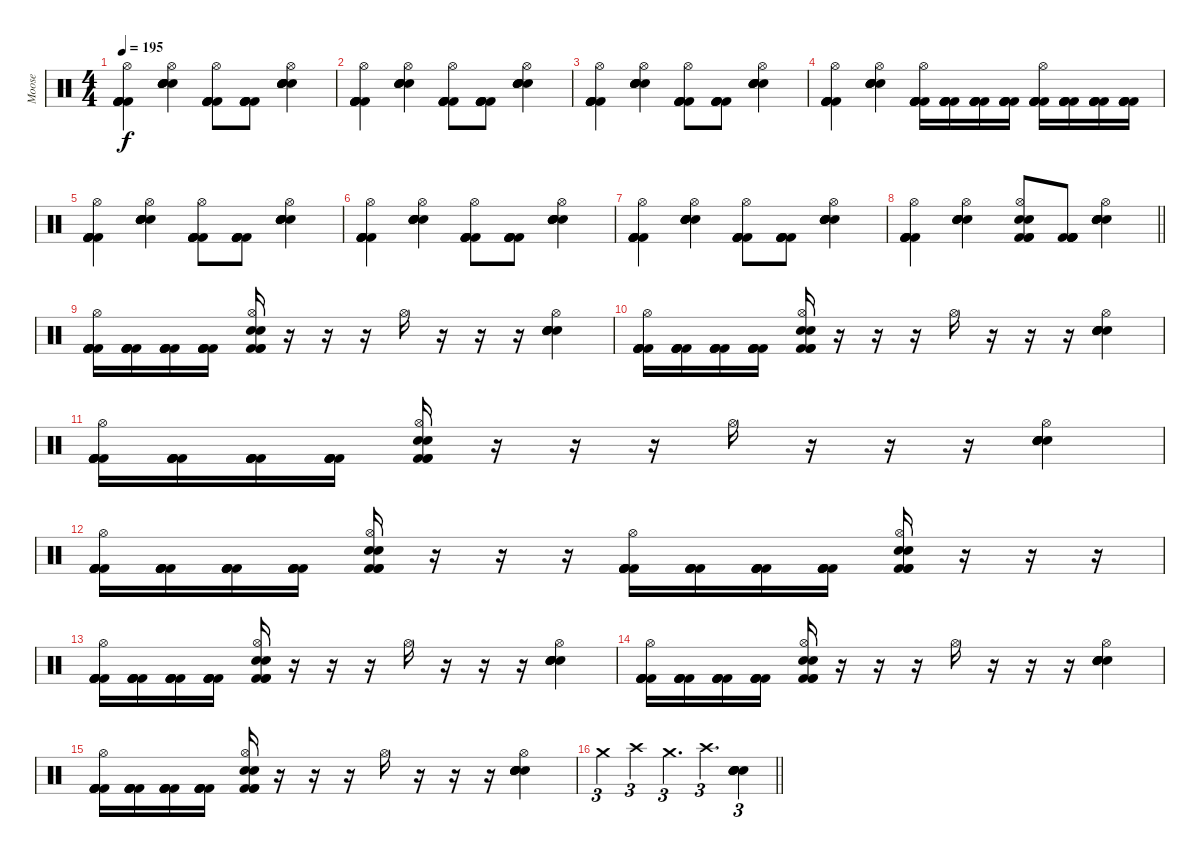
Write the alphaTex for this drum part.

\track ("Moose" "Moose") {instrument percussion}
\staff {score}
\articulation defaults
\ts (4 4)
\tempo 195
\clef neutral
\ks c
("Kick (hit) 2" "Kick (hit) 2" "Kick (hit) 2" "Kick (hit) 2" "Kick (hit) 2" "Hi-Hat (open)").4{dy f} ("Electric Snare (hit)" "Electric Snare (hit)" "Electric Snare (hit)" "Electric Snare (hit)" "Electric Snare (hit)" "Hi-Hat (open)").4 ("Kick (hit) 2" "Kick (hit) 2" "Kick (hit) 2" "Kick (hit) 2" "Kick (hit) 2" "Hi-Hat (open)").8 ("Kick (hit) 2" "Kick (hit) 2" "Kick (hit) 2" "Kick (hit) 2" "Kick (hit) 2").8 ("Electric Snare (hit)" "Electric Snare (hit)" "Electric Snare (hit)" "Electric Snare (hit)" "Electric Snare (hit)" "Hi-Hat (open)").4 |
("Kick (hit) 2" "Kick (hit) 2" "Kick (hit) 2" "Kick (hit) 2" "Kick (hit) 2" "Hi-Hat (open)").4 ("Electric Snare (hit)" "Electric Snare (hit)" "Electric Snare (hit)" "Electric Snare (hit)" "Electric Snare (hit)" "Hi-Hat (open)").4 ("Kick (hit) 2" "Kick (hit) 2" "Kick (hit) 2" "Kick (hit) 2" "Kick (hit) 2" "Hi-Hat (open)").8 ("Kick (hit) 2" "Kick (hit) 2" "Kick (hit) 2" "Kick (hit) 2" "Kick (hit) 2").8 ("Electric Snare (hit)" "Electric Snare (hit)" "Electric Snare (hit)" "Electric Snare (hit)" "Electric Snare (hit)" "Hi-Hat (open)").4 |
("Kick (hit) 2" "Kick (hit) 2" "Kick (hit) 2" "Kick (hit) 2" "Kick (hit) 2" "Hi-Hat (open)").4 ("Electric Snare (hit)" "Electric Snare (hit)" "Electric Snare (hit)" "Electric Snare (hit)" "Electric Snare (hit)" "Hi-Hat (open)").4 ("Kick (hit) 2" "Kick (hit) 2" "Kick (hit) 2" "Kick (hit) 2" "Kick (hit) 2" "Hi-Hat (open)").8 ("Kick (hit) 2" "Kick (hit) 2" "Kick (hit) 2" "Kick (hit) 2" "Kick (hit) 2").8 ("Electric Snare (hit)" "Electric Snare (hit)" "Electric Snare (hit)" "Electric Snare (hit)" "Electric Snare (hit)" "Hi-Hat (open)").4 |
("Kick (hit) 2" "Kick (hit) 2" "Kick (hit) 2" "Kick (hit) 2" "Kick (hit) 2" "Hi-Hat (open)").4 ("Electric Snare (hit)" "Electric Snare (hit)" "Electric Snare (hit)" "Electric Snare (hit)" "Electric Snare (hit)" "Hi-Hat (open)").4 ("Kick (hit) 2" "Kick (hit) 2" "Kick (hit) 2" "Kick (hit) 2" "Kick (hit) 2" "Hi-Hat (open)").16 ("Kick (hit) 2" "Kick (hit) 2" "Kick (hit) 2" "Kick (hit) 2" "Kick (hit) 2").16 ("Kick (hit) 2" "Kick (hit) 2" "Kick (hit) 2" "Kick (hit) 2" "Kick (hit) 2").16 ("Kick (hit) 2" "Kick (hit) 2" "Kick (hit) 2" "Kick (hit) 2" "Kick (hit) 2").16 ("Kick (hit) 2" "Kick (hit) 2" "Kick (hit) 2" "Kick (hit) 2" "Kick (hit) 2" "Hi-Hat (open)").16 ("Kick (hit) 2" "Kick (hit) 2" "Kick (hit) 2" "Kick (hit) 2" "Kick (hit) 2").16 ("Kick (hit) 2" "Kick (hit) 2" "Kick (hit) 2" "Kick (hit) 2" "Kick (hit) 2").16 ("Kick (hit) 2" "Kick (hit) 2" "Kick (hit) 2" "Kick (hit) 2" "Kick (hit) 2").16 |
("Kick (hit) 2" "Kick (hit) 2" "Kick (hit) 2" "Kick (hit) 2" "Kick (hit) 2" "Hi-Hat (open)").4 ("Electric Snare (hit)" "Electric Snare (hit)" "Electric Snare (hit)" "Electric Snare (hit)" "Electric Snare (hit)" "Hi-Hat (open)").4 ("Kick (hit) 2" "Kick (hit) 2" "Kick (hit) 2" "Kick (hit) 2" "Kick (hit) 2" "Hi-Hat (open)").8 ("Kick (hit) 2" "Kick (hit) 2" "Kick (hit) 2" "Kick (hit) 2" "Kick (hit) 2").8 ("Electric Snare (hit)" "Electric Snare (hit)" "Electric Snare (hit)" "Electric Snare (hit)" "Electric Snare (hit)" "Hi-Hat (open)").4 |
("Kick (hit) 2" "Kick (hit) 2" "Kick (hit) 2" "Kick (hit) 2" "Kick (hit) 2" "Hi-Hat (open)").4 ("Electric Snare (hit)" "Electric Snare (hit)" "Electric Snare (hit)" "Electric Snare (hit)" "Electric Snare (hit)" "Hi-Hat (open)").4 ("Kick (hit) 2" "Kick (hit) 2" "Kick (hit) 2" "Kick (hit) 2" "Kick (hit) 2" "Hi-Hat (open)").8 ("Kick (hit) 2" "Kick (hit) 2" "Kick (hit) 2" "Kick (hit) 2" "Kick (hit) 2").8 ("Electric Snare (hit)" "Electric Snare (hit)" "Electric Snare (hit)" "Electric Snare (hit)" "Electric Snare (hit)" "Hi-Hat (open)").4 |
("Kick (hit) 2" "Kick (hit) 2" "Kick (hit) 2" "Kick (hit) 2" "Kick (hit) 2" "Hi-Hat (open)").4 ("Electric Snare (hit)" "Electric Snare (hit)" "Electric Snare (hit)" "Electric Snare (hit)" "Electric Snare (hit)" "Hi-Hat (open)").4 ("Kick (hit) 2" "Kick (hit) 2" "Kick (hit) 2" "Kick (hit) 2" "Kick (hit) 2" "Hi-Hat (open)").8 ("Kick (hit) 2" "Kick (hit) 2" "Kick (hit) 2" "Kick (hit) 2" "Kick (hit) 2").8 ("Electric Snare (hit)" "Electric Snare (hit)" "Electric Snare (hit)" "Electric Snare (hit)" "Electric Snare (hit)" "Hi-Hat (open)").4 |
\barLineRight lightlight
("Kick (hit) 2" "Kick (hit) 2" "Kick (hit) 2" "Kick (hit) 2" "Kick (hit) 2" "Hi-Hat (open)").4 ("Electric Snare (hit)" "Electric Snare (hit)" "Electric Snare (hit)" "Electric Snare (hit)" "Electric Snare (hit)" "Hi-Hat (open)").4 ("Kick (hit) 2" "Kick (hit) 2" "Kick (hit) 2" "Electric Snare (hit)" "Electric Snare (hit)" "Hi-Hat (open)").8 ("Kick (hit) 2" "Kick (hit) 2" "Kick (hit) 2" "Kick (hit) 2" "Kick (hit) 2").8 ("Electric Snare (hit)" "Electric Snare (hit)" "Electric Snare (hit)" "Electric Snare (hit)" "Electric Snare (hit)" "Hi-Hat (open)").4 |
("Kick (hit) 2" "Kick (hit) 2" "Kick (hit) 2" "Kick (hit) 2" "Kick (hit) 2" "Hi-Hat (open)").16 ("Kick (hit) 2" "Kick (hit) 2" "Kick (hit) 2" "Kick (hit) 2" "Kick (hit) 2").16 ("Kick (hit) 2" "Kick (hit) 2" "Kick (hit) 2" "Kick (hit) 2" "Kick (hit) 2").16 ("Kick (hit) 2" "Kick (hit) 2" "Kick (hit) 2" "Kick (hit) 2" "Kick (hit) 2").16 ("Kick (hit) 2" "Kick (hit) 2" "Kick (hit) 2" "Electric Snare (hit)" "Electric Snare (hit)" "Hi-Hat (open)").16 r.16 r.16 r.16 "Hi-Hat (open)".16 r.16 r.16 r.16 ("Electric Snare (hit)" "Electric Snare (hit)" "Electric Snare (hit)" "Electric Snare (hit)" "Electric Snare (hit)" "Hi-Hat (open)").4 |
("Kick (hit) 2" "Kick (hit) 2" "Kick (hit) 2" "Kick (hit) 2" "Kick (hit) 2" "Hi-Hat (open)").16 ("Kick (hit) 2" "Kick (hit) 2" "Kick (hit) 2" "Kick (hit) 2" "Kick (hit) 2").16 ("Kick (hit) 2" "Kick (hit) 2" "Kick (hit) 2" "Kick (hit) 2" "Kick (hit) 2").16 ("Kick (hit) 2" "Kick (hit) 2" "Kick (hit) 2" "Kick (hit) 2" "Kick (hit) 2").16 ("Kick (hit) 2" "Kick (hit) 2" "Kick (hit) 2" "Electric Snare (hit)" "Electric Snare (hit)" "Hi-Hat (open)").16 r.16 r.16 r.16 "Hi-Hat (open)".16 r.16 r.16 r.16 ("Electric Snare (hit)" "Electric Snare (hit)" "Electric Snare (hit)" "Electric Snare (hit)" "Electric Snare (hit)" "Hi-Hat (open)").4 |
("Kick (hit) 2" "Kick (hit) 2" "Kick (hit) 2" "Kick (hit) 2" "Kick (hit) 2" "Hi-Hat (open)").16 ("Kick (hit) 2" "Kick (hit) 2" "Kick (hit) 2" "Kick (hit) 2" "Kick (hit) 2").16 ("Kick (hit) 2" "Kick (hit) 2" "Kick (hit) 2" "Kick (hit) 2" "Kick (hit) 2").16 ("Kick (hit) 2" "Kick (hit) 2" "Kick (hit) 2" "Kick (hit) 2" "Kick (hit) 2").16 ("Kick (hit) 2" "Kick (hit) 2" "Kick (hit) 2" "Electric Snare (hit)" "Electric Snare (hit)" "Hi-Hat (open)").16 r.16 r.16 r.16 "Hi-Hat (open)".16 r.16 r.16 r.16 ("Electric Snare (hit)" "Electric Snare (hit)" "Electric Snare (hit)" "Electric Snare (hit)" "Electric Snare (hit)" "Hi-Hat (open)").4 |
("Kick (hit) 2" "Kick (hit) 2" "Kick (hit) 2" "Kick (hit) 2" "Kick (hit) 2" "Hi-Hat (open)").16 ("Kick (hit) 2" "Kick (hit) 2" "Kick (hit) 2" "Kick (hit) 2" "Kick (hit) 2").16 ("Kick (hit) 2" "Kick (hit) 2" "Kick (hit) 2" "Kick (hit) 2" "Kick (hit) 2").16 ("Kick (hit) 2" "Kick (hit) 2" "Kick (hit) 2" "Kick (hit) 2" "Kick (hit) 2").16 ("Kick (hit) 2" "Kick (hit) 2" "Kick (hit) 2" "Electric Snare (hit)" "Electric Snare (hit)" "Hi-Hat (open)").16 r.16 r.16 r.16 ("Kick (hit) 2" "Kick (hit) 2" "Kick (hit) 2" "Kick (hit) 2" "Kick (hit) 2" "Hi-Hat (open)").16 ("Kick (hit) 2" "Kick (hit) 2" "Kick (hit) 2" "Kick (hit) 2" "Kick (hit) 2").16 ("Kick (hit) 2" "Kick (hit) 2" "Kick (hit) 2" "Kick (hit) 2" "Kick (hit) 2").16 ("Kick (hit) 2" "Kick (hit) 2" "Kick (hit) 2" "Kick (hit) 2" "Kick (hit) 2").16 ("Kick (hit) 2" "Kick (hit) 2" "Kick (hit) 2" "Electric Snare (hit)" "Electric Snare (hit)" "Hi-Hat (open)").16 r.16 r.16 r.16 |
("Kick (hit) 2" "Kick (hit) 2" "Kick (hit) 2" "Kick (hit) 2" "Kick (hit) 2" "Hi-Hat (open)").16 ("Kick (hit) 2" "Kick (hit) 2" "Kick (hit) 2" "Kick (hit) 2" "Kick (hit) 2").16 ("Kick (hit) 2" "Kick (hit) 2" "Kick (hit) 2" "Kick (hit) 2" "Kick (hit) 2").16 ("Kick (hit) 2" "Kick (hit) 2" "Kick (hit) 2" "Kick (hit) 2" "Kick (hit) 2").16 ("Kick (hit) 2" "Kick (hit) 2" "Kick (hit) 2" "Electric Snare (hit)" "Electric Snare (hit)" "Hi-Hat (open)").16 r.16 r.16 r.16 "Hi-Hat (open)".16 r.16 r.16 r.16 ("Electric Snare (hit)" "Electric Snare (hit)" "Electric Snare (hit)" "Electric Snare (hit)" "Electric Snare (hit)" "Hi-Hat (open)").4 |
("Kick (hit) 2" "Kick (hit) 2" "Kick (hit) 2" "Kick (hit) 2" "Kick (hit) 2" "Hi-Hat (open)").16 ("Kick (hit) 2" "Kick (hit) 2" "Kick (hit) 2" "Kick (hit) 2" "Kick (hit) 2").16 ("Kick (hit) 2" "Kick (hit) 2" "Kick (hit) 2" "Kick (hit) 2" "Kick (hit) 2").16 ("Kick (hit) 2" "Kick (hit) 2" "Kick (hit) 2" "Kick (hit) 2" "Kick (hit) 2").16 ("Kick (hit) 2" "Kick (hit) 2" "Kick (hit) 2" "Electric Snare (hit)" "Electric Snare (hit)" "Hi-Hat (open)").16 r.16 r.16 r.16 "Hi-Hat (open)".16 r.16 r.16 r.16 ("Electric Snare (hit)" "Electric Snare (hit)" "Electric Snare (hit)" "Electric Snare (hit)" "Electric Snare (hit)" "Hi-Hat (open)").4 |
("Kick (hit) 2" "Kick (hit) 2" "Kick (hit) 2" "Kick (hit) 2" "Kick (hit) 2" "Hi-Hat (open)").16 ("Kick (hit) 2" "Kick (hit) 2" "Kick (hit) 2" "Kick (hit) 2" "Kick (hit) 2").16 ("Kick (hit) 2" "Kick (hit) 2" "Kick (hit) 2" "Kick (hit) 2" "Kick (hit) 2").16 ("Kick (hit) 2" "Kick (hit) 2" "Kick (hit) 2" "Kick (hit) 2" "Kick (hit) 2").16 ("Kick (hit) 2" "Kick (hit) 2" "Kick (hit) 2" "Electric Snare (hit)" "Electric Snare (hit)" "Hi-Hat (open)").16 r.16 r.16 r.16 "Hi-Hat (open)".16 r.16 r.16 r.16 ("Electric Snare (hit)" "Electric Snare (hit)" "Electric Snare (hit)" "Electric Snare (hit)" "Electric Snare (hit)" "Hi-Hat (open)").4 |
\barLineRight lightlight "Crash medium (hit)".4{tu (3 2)} "Crash high (hit)".4{tu (3 2)} "Crash medium (hit)".4{d tu (3 2)} "Crash high (hit)".4{d tu (3 2)}
("Electric Snare (hit)" "Electric Snare (hit)" "Electric Snare (hit)" "Electric Snare (hit)" "Electric Snare (hit)").4{tu (3 2)}
